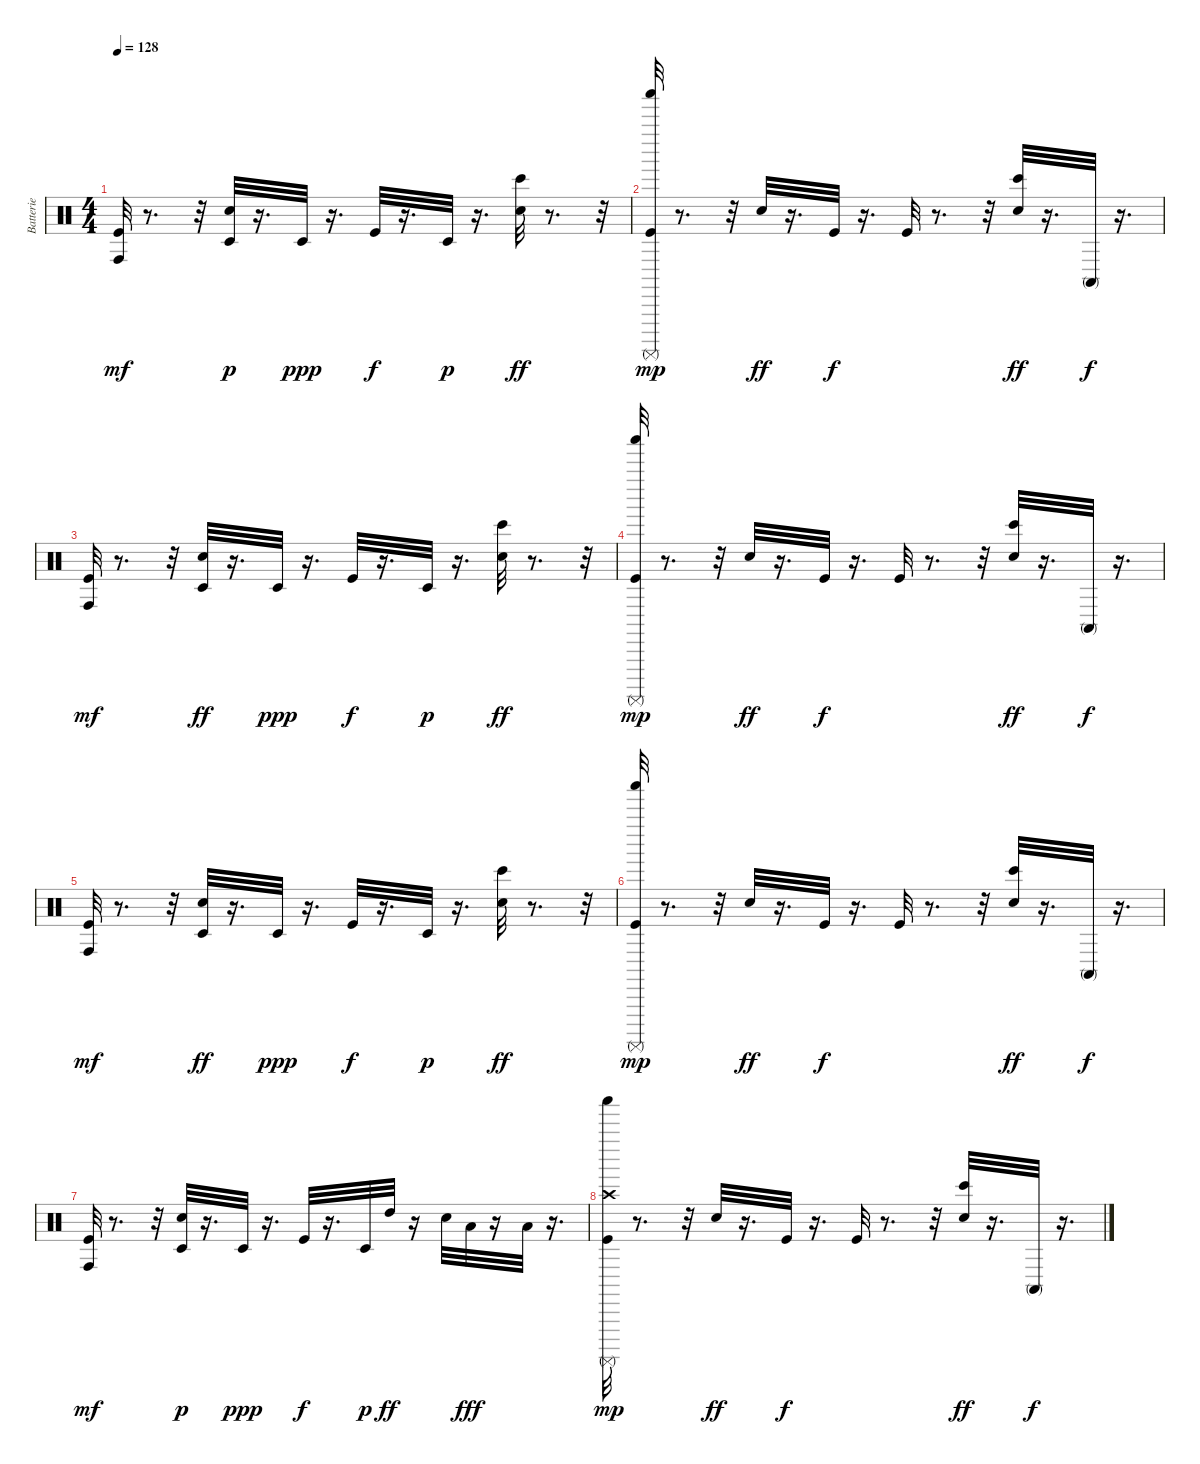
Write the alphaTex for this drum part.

\track ("Batterie" "Batterie") {instrument percussion}
\staff {score}
\articulation defaults
\ts (4 4)
\tempo 128
\clef neutral
\ks c
("Kick (hit)" "Conga high (hit)").32{dy mf} r.8{d} r.32 ("Electric Snare (hit)" "Timbale low (hit)").32{dy p} r.16{d} "Timbale low (hit)".32{dy ppp} r.16{d} "Kick (hit)".32{dy f} r.16{d} "Timbale low (hit)".32{dy p} r.16{d} ("Bongo High (hit)" "Electric Snare (hit)").32{dy ff} r.8{d} r.32 |
("Shaker (hit)" "Kick (hit)" "Surdo (mute)").32{dy mp} r.8{d} r.32 "Electric Snare (hit)".32{dy ff} r.16{d} "Kick (hit)".32{dy f} r.16{d} "Kick (hit)".32 r.8{d} r.32 ("Bongo High (hit)" "Electric Snare (hit)").32{dy ff} r.16{d} "Conga high (mute)".32{dy f} r.16{d} |
("Conga high (hit)" "Kick (hit)").32{dy mf} r.8{d} r.32 ("Timbale low (hit)" "Electric Snare (hit)").32{dy ff} r.16{d} "Timbale low (hit)".32{dy ppp} r.16{d} "Kick (hit)".32{dy f} r.16{d} "Timbale low (hit)".32{dy p} r.16{d} ("Bongo High (hit)" "Electric Snare (hit)").32{dy ff} r.8{d} r.32 |
("Surdo (mute)" "Kick (hit)" "Shaker (hit)").32{dy mp} r.8{d} r.32 "Electric Snare (hit)".32{dy ff} r.16{d} "Kick (hit)".32{dy f} r.16{d} "Kick (hit)".32 r.8{d} r.32 ("Bongo High (hit)" "Electric Snare (hit)").32{dy ff} r.16{d} "Conga high (mute)".32{dy f} r.16{d} |
("Kick (hit)" "Conga high (hit)").32{dy mf} r.8{d} r.32 ("Timbale low (hit)" "Electric Snare (hit)").32{dy ff} r.16{d} "Timbale low (hit)".32{dy ppp} r.16{d} "Kick (hit)".32{dy f} r.16{d} "Timbale low (hit)".32{dy p} r.16{d} ("Bongo High (hit)" "Electric Snare (hit)").32{dy ff} r.8{d} r.32 |
("Shaker (hit)" "Kick (hit)" "Surdo (mute)").32{dy mp} r.8{d} r.32 "Electric Snare (hit)".32{dy ff} r.16{d} "Kick (hit)".32{dy f} r.16{d} "Kick (hit)".32 r.8{d} r.32 ("Bongo High (hit)" "Electric Snare (hit)").32{dy ff} r.16{d} "Conga high (mute)".32{dy f} r.16{d} |
("Kick (hit)" "Conga high (hit)").32{dy mf} r.8{d} r.32 ("Electric Snare (hit)" "Timbale low (hit)").32{dy p} r.16{d} "Timbale low (hit)".32{dy ppp} r.16{d} "Kick (hit)".32{dy f} r.16{d} "Timbale low (hit)".32{dy p} "High Tom (hit)".32{dy ff} r.16 "Electric Snare (hit)".32 "Low Tom (hit)".32{dy fff} r.16 "Low Floor Tom (hit)".32 r.16{d} |
("Kick (hit)" "Crash high (hit)" "Shaker (hit)" "Surdo (mute)").32{dy mp} r.8{d} r.32 "Electric Snare (hit)".32{dy ff} r.16{d} "Kick (hit)".32{dy f} r.16{d} "Kick (hit)".32 r.8{d} r.32 ("Bongo High (hit)" "Electric Snare (hit)").32{dy ff} r.16{d} "Conga high (mute)".32{dy f} r.16{d}
